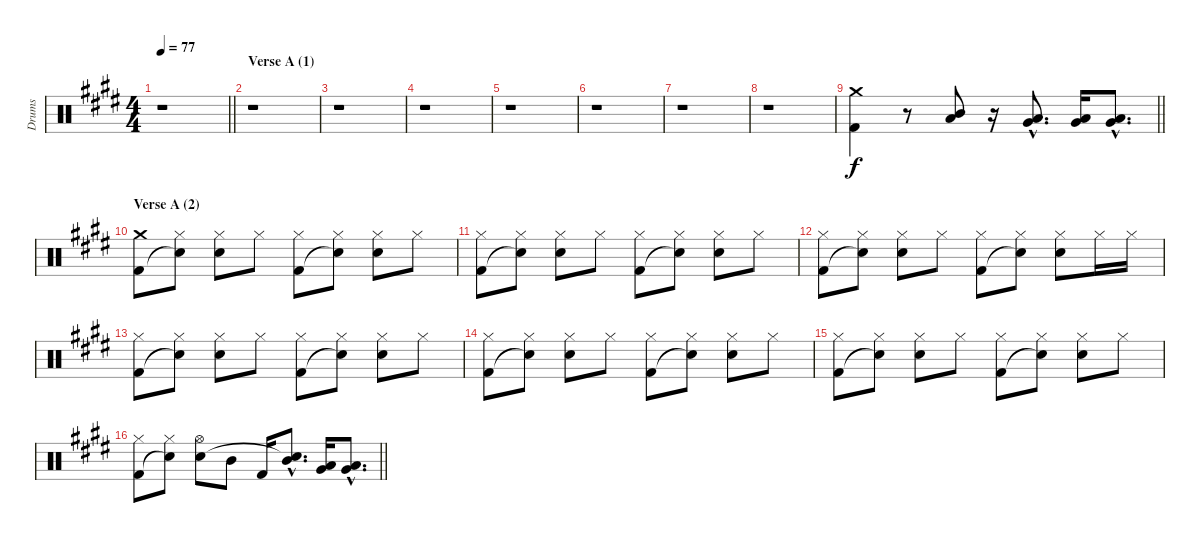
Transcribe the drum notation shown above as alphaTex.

\track ("Drums" "Drums") {instrument percussion}
\staff {score}
\articulation defaults
\ts (4 4)
\tempo 77
\clef neutral
\barLineRight lightlight
\ks e
r.1{dy f} |
\section ("" "Verse A (1)")
r.1 |
r.1 |
r.1 |
r.1 |
r.1 |
r.1 |
r.1 |
\barLineRight lightlight
("Crash medium (hit)" "Kick (hit) 2").4 r.8 ("Mid Tom (hit)" "Low Tom (hit)").8 r.16 ("Very Low Tom (hit)"{hac} "Low Floor Tom (hit)"{hac}).8{d} ("Very Low Tom (hit)" "Low Floor Tom (hit)").16 ("Very Low Tom (hit)"{hac} "Low Floor Tom (hit)"{hac}).8{d} |
\section ("" "Verse A (2)")
("Crash medium (hit)" "Kick (hit) 2").8 ("Hi-Hat (closed)" "Snare (hit)"{t}).8 ("Hi-Hat (closed)" "Electric Snare (hit)").8 "Hi-Hat (closed)".8 ("Hi-Hat (closed)" "Kick (hit) 2").8 ("Hi-Hat (closed)" "Snare (hit)"{t}).8 ("Hi-Hat (closed)" "Electric Snare (hit)").8 "Hi-Hat (closed)".8 |
("Hi-Hat (closed)" "Kick (hit) 2").8 ("Hi-Hat (closed)" "Snare (hit)"{t}).8 ("Hi-Hat (closed)" "Electric Snare (hit)").8 "Hi-Hat (closed)".8 ("Hi-Hat (closed)" "Kick (hit) 2").8 ("Hi-Hat (closed)" "Snare (hit)"{t}).8 ("Hi-Hat (closed)" "Electric Snare (hit)").8 "Hi-Hat (closed)".8 |
("Hi-Hat (closed)" "Kick (hit) 2").8 ("Hi-Hat (closed)" "Snare (hit)"{t}).8 ("Hi-Hat (closed)" "Electric Snare (hit)").8 "Hi-Hat (closed)".8 ("Hi-Hat (closed)" "Kick (hit) 2").8 ("Hi-Hat (closed)" "Snare (hit)"{t}).8 ("Hi-Hat (closed)" "Electric Snare (hit)").8 "Hi-Hat (closed)".16 "Hi-Hat (closed)".16 |
("Hi-Hat (closed)" "Kick (hit) 2").8 ("Hi-Hat (closed)" "Snare (hit)"{t}).8 ("Hi-Hat (closed)" "Electric Snare (hit)").8 "Hi-Hat (closed)".8 ("Hi-Hat (closed)" "Kick (hit) 2").8 ("Hi-Hat (closed)" "Snare (hit)"{t}).8 ("Hi-Hat (closed)" "Electric Snare (hit)").8 "Hi-Hat (closed)".8 |
("Hi-Hat (closed)" "Kick (hit) 2").8 ("Hi-Hat (closed)" "Snare (hit)"{t}).8 ("Hi-Hat (closed)" "Electric Snare (hit)").8 "Hi-Hat (closed)".8 ("Hi-Hat (closed)" "Kick (hit) 2").8 ("Hi-Hat (closed)" "Snare (hit)"{t}).8 ("Hi-Hat (closed)" "Electric Snare (hit)").8 "Hi-Hat (closed)".8 |
("Hi-Hat (closed)" "Kick (hit) 2").8 ("Hi-Hat (closed)" "Snare (hit)"{t}).8 ("Hi-Hat (closed)" "Electric Snare (hit)").8 "Hi-Hat (closed)".8 ("Hi-Hat (closed)" "Kick (hit) 2").8 ("Hi-Hat (closed)" "Snare (hit)"{t}).8 ("Hi-Hat (closed)" "Electric Snare (hit)").8 "Hi-Hat (closed)".8 |
\barLineRight lightlight
("Hi-Hat (closed)" "Kick (hit) 2").8 ("Hi-Hat (closed)" "Snare (hit)"{t}).8 ("Hi-Hat (open)" "Electric Snare (hit)").8 "Mid Tom (hit)".8 "Kick (hit) 2".16 ("Mid Tom (hit)"{hac} "Snare (hit)"{hac t}).8{d} ("Low Tom (hit)" "Very Low Tom (hit)").16 ("Low Tom (hit)"{hac} "Very Low Tom (hit)"{hac}).8{d}
